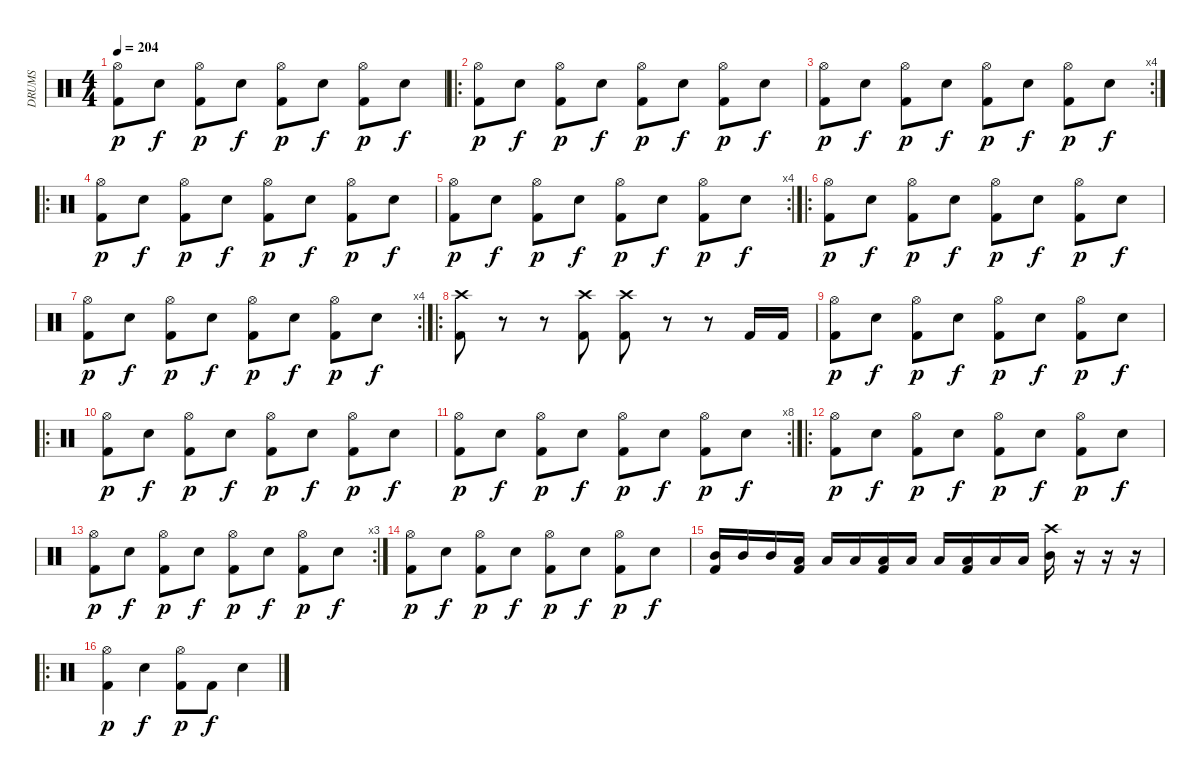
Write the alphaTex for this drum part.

\track ("DRUMS" "DRUMS") {instrument percussion}
\staff {score}
\articulation defaults
\ts (4 4)
\tempo 204
\clef neutral
\ks c
("Kick (hit) 2" "Hi-Hat (open)").8{dy p} "Electric Snare (hit)".8{dy f} ("Kick (hit) 2" "Hi-Hat (open)").8{dy p} "Electric Snare (hit)".8{dy f} ("Kick (hit) 2" "Hi-Hat (open)").8{dy p} "Electric Snare (hit)".8{dy f} ("Kick (hit) 2" "Hi-Hat (open)").8{dy p} "Electric Snare (hit)".8{dy f} |
\ro
("Kick (hit) 2" "Hi-Hat (open)").8{dy p} "Electric Snare (hit)".8{dy f} ("Kick (hit) 2" "Hi-Hat (open)").8{dy p} "Electric Snare (hit)".8{dy f} ("Kick (hit) 2" "Hi-Hat (open)").8{dy p} "Electric Snare (hit)".8{dy f} ("Kick (hit) 2" "Hi-Hat (open)").8{dy p} "Electric Snare (hit)".8{dy f} |
\rc 4
("Kick (hit) 2" "Hi-Hat (open)").8{dy p} "Electric Snare (hit)".8{dy f} ("Kick (hit) 2" "Hi-Hat (open)").8{dy p} "Electric Snare (hit)".8{dy f} ("Kick (hit) 2" "Hi-Hat (open)").8{dy p} "Electric Snare (hit)".8{dy f} ("Kick (hit) 2" "Hi-Hat (open)").8{dy p} "Electric Snare (hit)".8{dy f} |
\ro
("Kick (hit) 2" "Hi-Hat (open)").8{dy p} "Electric Snare (hit)".8{dy f} ("Kick (hit) 2" "Hi-Hat (open)").8{dy p} "Electric Snare (hit)".8{dy f} ("Kick (hit) 2" "Hi-Hat (open)").8{dy p} "Electric Snare (hit)".8{dy f} ("Kick (hit) 2" "Hi-Hat (open)").8{dy p} "Electric Snare (hit)".8{dy f} |
\rc 4
("Kick (hit) 2" "Hi-Hat (open)").8{dy p} "Electric Snare (hit)".8{dy f} ("Kick (hit) 2" "Hi-Hat (open)").8{dy p} "Electric Snare (hit)".8{dy f} ("Kick (hit) 2" "Hi-Hat (open)").8{dy p} "Electric Snare (hit)".8{dy f} ("Kick (hit) 2" "Hi-Hat (open)").8{dy p} "Electric Snare (hit)".8{dy f} |
\ro
("Kick (hit) 2" "Hi-Hat (open)").8{dy p} "Electric Snare (hit)".8{dy f} ("Kick (hit) 2" "Hi-Hat (open)").8{dy p} "Electric Snare (hit)".8{dy f} ("Kick (hit) 2" "Hi-Hat (open)").8{dy p} "Electric Snare (hit)".8{dy f} ("Kick (hit) 2" "Hi-Hat (open)").8{dy p} "Electric Snare (hit)".8{dy f} |
\rc 4
("Kick (hit) 2" "Hi-Hat (open)").8{dy p} "Electric Snare (hit)".8{dy f} ("Kick (hit) 2" "Hi-Hat (open)").8{dy p} "Electric Snare (hit)".8{dy f} ("Kick (hit) 2" "Hi-Hat (open)").8{dy p} "Electric Snare (hit)".8{dy f} ("Kick (hit) 2" "Hi-Hat (open)").8{dy p} "Electric Snare (hit)".8{dy f} |
\ro
("Kick (hit) 2" "Crash high (hit)").8 r.8 r.8 ("Kick (hit) 2" "Crash high (hit)").8 ("Kick (hit) 2" "Crash high (hit)").8 r.8 r.8 "Kick (hit) 2".16 "Kick (hit) 2".16 |
("Kick (hit) 2" "Hi-Hat (open)").8{dy p} "Electric Snare (hit)".8{dy f} ("Kick (hit) 2" "Hi-Hat (open)").8{dy p} "Electric Snare (hit)".8{dy f} ("Kick (hit) 2" "Hi-Hat (open)").8{dy p} "Electric Snare (hit)".8{dy f} ("Kick (hit) 2" "Hi-Hat (open)").8{dy p} "Electric Snare (hit)".8{dy f} |
\ro
("Kick (hit) 2" "Hi-Hat (open)").8{dy p} "Electric Snare (hit)".8{dy f} ("Kick (hit) 2" "Hi-Hat (open)").8{dy p} "Electric Snare (hit)".8{dy f} ("Kick (hit) 2" "Hi-Hat (open)").8{dy p} "Electric Snare (hit)".8{dy f} ("Kick (hit) 2" "Hi-Hat (open)").8{dy p} "Electric Snare (hit)".8{dy f} |
\rc 8
("Kick (hit) 2" "Hi-Hat (open)").8{dy p} "Electric Snare (hit)".8{dy f} ("Kick (hit) 2" "Hi-Hat (open)").8{dy p} "Electric Snare (hit)".8{dy f} ("Kick (hit) 2" "Hi-Hat (open)").8{dy p} "Electric Snare (hit)".8{dy f} ("Kick (hit) 2" "Hi-Hat (open)").8{dy p} "Electric Snare (hit)".8{dy f} |
\ro
("Kick (hit) 2" "Hi-Hat (open)").8{dy p} "Electric Snare (hit)".8{dy f} ("Kick (hit) 2" "Hi-Hat (open)").8{dy p} "Electric Snare (hit)".8{dy f} ("Kick (hit) 2" "Hi-Hat (open)").8{dy p} "Electric Snare (hit)".8{dy f} ("Kick (hit) 2" "Hi-Hat (open)").8{dy p} "Electric Snare (hit)".8{dy f} |
\rc 3
("Kick (hit) 2" "Hi-Hat (open)").8{dy p} "Electric Snare (hit)".8{dy f} ("Kick (hit) 2" "Hi-Hat (open)").8{dy p} "Electric Snare (hit)".8{dy f} ("Kick (hit) 2" "Hi-Hat (open)").8{dy p} "Electric Snare (hit)".8{dy f} ("Kick (hit) 2" "Hi-Hat (open)").8{dy p} "Electric Snare (hit)".8{dy f} |
("Kick (hit) 2" "Hi-Hat (open)").8{dy p} "Electric Snare (hit)".8{dy f} ("Kick (hit) 2" "Hi-Hat (open)").8{dy p} "Electric Snare (hit)".8{dy f} ("Kick (hit) 2" "Hi-Hat (open)").8{dy p} "Electric Snare (hit)".8{dy f} ("Kick (hit) 2" "Hi-Hat (open)").8{dy p} "Electric Snare (hit)".8{dy f} |
("Kick (hit) 2" "Mid Tom (hit)").16 "Mid Tom (hit)".16 "Mid Tom (hit)".16 ("Kick (hit) 2" "Low Tom (hit)").16 "Low Tom (hit)".16 "Low Tom (hit)".16 ("Kick (hit) 2" "Low Tom (hit)").16 "Low Tom (hit)".16 "Low Tom (hit)".16 ("Kick (hit) 2" "Low Tom (hit)").16 "Low Tom (hit)".16 "Low Tom (hit)".16 ("Crash high (hit)" "Mid Tom (hit)").16 r.16 r.16 r.16 |
\ro
("Kick (hit) 2" "Hi-Hat (open)").4{dy p} "Electric Snare (hit)".4{dy f} ("Kick (hit) 2" "Hi-Hat (open)").8{dy p} "Kick (hit) 2".8{dy f} "Electric Snare (hit)".4
